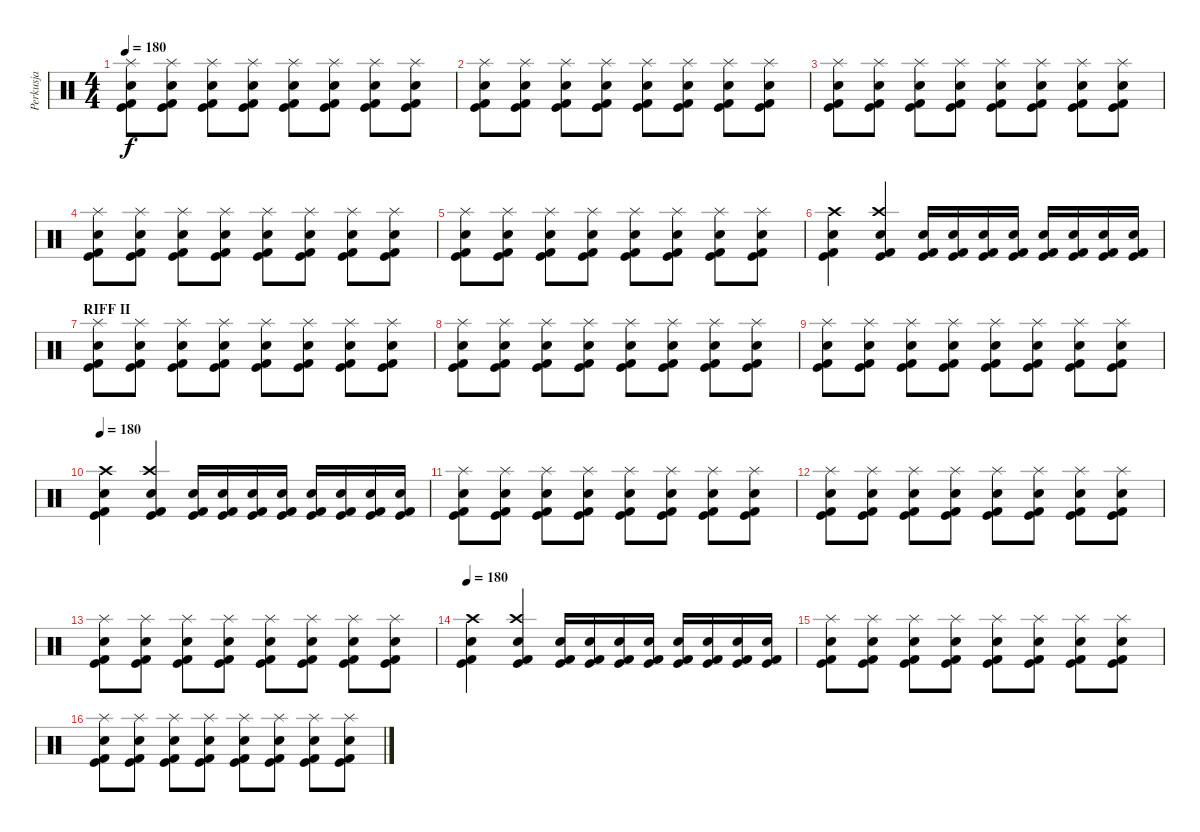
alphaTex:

\track ("Perkusja" "Perkusja") {instrument percussion}
\staff {score}
\articulation defaults
\ts (4 4)
\tempo 180
\clef neutral
\ks c
("Kick (hit)" "Kick (hit) 2" "Snare (hit) 2" "Splash (hit)").8{dy f} ("Kick (hit)" "Kick (hit) 2" "Snare (hit) 2" "Splash (hit)").8 ("Kick (hit)" "Kick (hit) 2" "Snare (hit) 2" "Splash (hit)").8 ("Kick (hit)" "Kick (hit) 2" "Snare (hit) 2" "Splash (hit)").8 ("Kick (hit)" "Kick (hit) 2" "Snare (hit) 2" "Splash (hit)").8 ("Kick (hit)" "Kick (hit) 2" "Snare (hit) 2" "Splash (hit)").8 ("Kick (hit)" "Kick (hit) 2" "Snare (hit) 2" "Splash (hit)").8 ("Kick (hit)" "Kick (hit) 2" "Snare (hit) 2" "Splash (hit)").8 |
("Kick (hit)" "Kick (hit) 2" "Snare (hit) 2" "Splash (hit)").8 ("Kick (hit)" "Kick (hit) 2" "Snare (hit) 2" "Splash (hit)").8 ("Kick (hit)" "Kick (hit) 2" "Snare (hit) 2" "Splash (hit)").8 ("Kick (hit)" "Kick (hit) 2" "Snare (hit) 2" "Splash (hit)").8 ("Kick (hit)" "Kick (hit) 2" "Snare (hit) 2" "Splash (hit)").8 ("Kick (hit)" "Kick (hit) 2" "Snare (hit) 2" "Splash (hit)").8 ("Kick (hit)" "Kick (hit) 2" "Snare (hit) 2" "Splash (hit)").8 ("Kick (hit)" "Kick (hit) 2" "Snare (hit) 2" "Splash (hit)").8 |
("Kick (hit)" "Kick (hit) 2" "Snare (hit) 2" "Splash (hit)").8 ("Kick (hit)" "Kick (hit) 2" "Snare (hit) 2" "Splash (hit)").8 ("Kick (hit)" "Kick (hit) 2" "Snare (hit) 2" "Splash (hit)").8 ("Kick (hit)" "Kick (hit) 2" "Snare (hit) 2" "Splash (hit)").8 ("Kick (hit)" "Kick (hit) 2" "Snare (hit) 2" "Splash (hit)").8 ("Kick (hit)" "Kick (hit) 2" "Snare (hit) 2" "Splash (hit)").8 ("Kick (hit)" "Kick (hit) 2" "Snare (hit) 2" "Splash (hit)").8 ("Kick (hit)" "Kick (hit) 2" "Snare (hit) 2" "Splash (hit)").8 |
("Kick (hit)" "Kick (hit) 2" "Snare (hit) 2" "Splash (hit)").8 ("Kick (hit)" "Kick (hit) 2" "Snare (hit) 2" "Splash (hit)").8 ("Kick (hit)" "Kick (hit) 2" "Snare (hit) 2" "Splash (hit)").8 ("Kick (hit)" "Kick (hit) 2" "Snare (hit) 2" "Splash (hit)").8 ("Kick (hit)" "Kick (hit) 2" "Snare (hit) 2" "Splash (hit)").8 ("Kick (hit)" "Kick (hit) 2" "Snare (hit) 2" "Splash (hit)").8 ("Kick (hit)" "Kick (hit) 2" "Snare (hit) 2" "Splash (hit)").8 ("Kick (hit)" "Kick (hit) 2" "Snare (hit) 2" "Splash (hit)").8 |
("Kick (hit)" "Kick (hit) 2" "Snare (hit) 2" "Splash (hit)").8 ("Kick (hit)" "Kick (hit) 2" "Snare (hit) 2" "Splash (hit)").8 ("Kick (hit)" "Kick (hit) 2" "Snare (hit) 2" "Splash (hit)").8 ("Kick (hit)" "Kick (hit) 2" "Snare (hit) 2" "Splash (hit)").8 ("Kick (hit)" "Kick (hit) 2" "Snare (hit) 2" "Splash (hit)").8 ("Kick (hit)" "Kick (hit) 2" "Snare (hit) 2" "Splash (hit)").8 ("Kick (hit)" "Kick (hit) 2" "Snare (hit) 2" "Splash (hit)").8 ("Kick (hit)" "Kick (hit) 2" "Snare (hit) 2" "Splash (hit)").8 |
("Crash high (hit)" "Snare (hit) 2" "Kick (hit) 2" "Kick (hit)").4 ("Crash high (hit)" "Electric Snare (hit)" "Kick (hit) 2" "Kick (hit)").4 ("Snare (hit) 2" "Kick (hit) 2" "Kick (hit)").16 ("Snare (hit) 2" "Kick (hit) 2" "Kick (hit)").16 ("Snare (hit) 2" "Kick (hit) 2" "Kick (hit)").16 ("Snare (hit) 2" "Kick (hit) 2" "Kick (hit)").16 ("Snare (hit) 2" "Kick (hit) 2" "Kick (hit)").16 ("Snare (hit) 2" "Kick (hit) 2" "Kick (hit)").16 ("Snare (hit) 2" "Kick (hit) 2" "Kick (hit)").16 ("Snare (hit) 2" "Kick (hit) 2" "Kick (hit)").16 |
\section ("" "RIFF II")
("Kick (hit)" "Kick (hit) 2" "Snare (hit) 2" "Splash (hit)").8 ("Kick (hit)" "Kick (hit) 2" "Snare (hit) 2" "Splash (hit)").8 ("Kick (hit)" "Kick (hit) 2" "Snare (hit) 2" "Splash (hit)").8 ("Kick (hit)" "Kick (hit) 2" "Snare (hit) 2" "Splash (hit)").8 ("Kick (hit)" "Kick (hit) 2" "Snare (hit) 2" "Splash (hit)").8 ("Kick (hit)" "Kick (hit) 2" "Snare (hit) 2" "Splash (hit)").8 ("Kick (hit)" "Kick (hit) 2" "Snare (hit) 2" "Splash (hit)").8 ("Kick (hit)" "Kick (hit) 2" "Snare (hit) 2" "Splash (hit)").8 |
("Kick (hit)" "Kick (hit) 2" "Snare (hit) 2" "Splash (hit)").8 ("Kick (hit)" "Kick (hit) 2" "Snare (hit) 2" "Splash (hit)").8 ("Kick (hit)" "Kick (hit) 2" "Snare (hit) 2" "Splash (hit)").8 ("Kick (hit)" "Kick (hit) 2" "Snare (hit) 2" "Splash (hit)").8 ("Kick (hit)" "Kick (hit) 2" "Snare (hit) 2" "Splash (hit)").8 ("Kick (hit)" "Kick (hit) 2" "Snare (hit) 2" "Splash (hit)").8 ("Kick (hit)" "Kick (hit) 2" "Snare (hit) 2" "Splash (hit)").8 ("Kick (hit)" "Kick (hit) 2" "Snare (hit) 2" "Splash (hit)").8 |
("Kick (hit)" "Kick (hit) 2" "Snare (hit) 2" "Splash (hit)").8 ("Kick (hit)" "Kick (hit) 2" "Snare (hit) 2" "Splash (hit)").8 ("Kick (hit)" "Kick (hit) 2" "Snare (hit) 2" "Splash (hit)").8 ("Kick (hit)" "Kick (hit) 2" "Snare (hit) 2" "Splash (hit)").8 ("Kick (hit)" "Kick (hit) 2" "Snare (hit) 2" "Splash (hit)").8 ("Kick (hit)" "Kick (hit) 2" "Snare (hit) 2" "Splash (hit)").8 ("Kick (hit)" "Kick (hit) 2" "Snare (hit) 2" "Splash (hit)").8 ("Kick (hit)" "Kick (hit) 2" "Snare (hit) 2" "Splash (hit)").8 |
\tempo 180
("Crash high (hit)" "Snare (hit) 2" "Kick (hit) 2" "Kick (hit)").4 ("Crash high (hit)" "Electric Snare (hit)" "Kick (hit) 2" "Kick (hit)").4 ("Snare (hit) 2" "Kick (hit) 2" "Kick (hit)").16 ("Snare (hit) 2" "Kick (hit) 2" "Kick (hit)").16 ("Snare (hit) 2" "Kick (hit) 2" "Kick (hit)").16 ("Snare (hit) 2" "Kick (hit) 2" "Kick (hit)").16 ("Snare (hit) 2" "Kick (hit) 2" "Kick (hit)").16 ("Snare (hit) 2" "Kick (hit) 2" "Kick (hit)").16 ("Snare (hit) 2" "Kick (hit) 2" "Kick (hit)").16 ("Snare (hit) 2" "Kick (hit) 2" "Kick (hit)").16 |
("Kick (hit)" "Kick (hit) 2" "Snare (hit) 2" "Splash (hit)").8 ("Kick (hit)" "Kick (hit) 2" "Snare (hit) 2" "Splash (hit)").8 ("Kick (hit)" "Kick (hit) 2" "Snare (hit) 2" "Splash (hit)").8 ("Kick (hit)" "Kick (hit) 2" "Snare (hit) 2" "Splash (hit)").8 ("Kick (hit)" "Kick (hit) 2" "Snare (hit) 2" "Splash (hit)").8 ("Kick (hit)" "Kick (hit) 2" "Snare (hit) 2" "Splash (hit)").8 ("Kick (hit)" "Kick (hit) 2" "Snare (hit) 2" "Splash (hit)").8 ("Kick (hit)" "Kick (hit) 2" "Snare (hit) 2" "Splash (hit)").8 |
("Kick (hit)" "Kick (hit) 2" "Snare (hit) 2" "Splash (hit)").8 ("Kick (hit)" "Kick (hit) 2" "Snare (hit) 2" "Splash (hit)").8 ("Kick (hit)" "Kick (hit) 2" "Snare (hit) 2" "Splash (hit)").8 ("Kick (hit)" "Kick (hit) 2" "Snare (hit) 2" "Splash (hit)").8 ("Kick (hit)" "Kick (hit) 2" "Snare (hit) 2" "Splash (hit)").8 ("Kick (hit)" "Kick (hit) 2" "Snare (hit) 2" "Splash (hit)").8 ("Kick (hit)" "Kick (hit) 2" "Snare (hit) 2" "Splash (hit)").8 ("Kick (hit)" "Kick (hit) 2" "Snare (hit) 2" "Splash (hit)").8 |
("Kick (hit)" "Kick (hit) 2" "Snare (hit) 2" "Splash (hit)").8 ("Kick (hit)" "Kick (hit) 2" "Snare (hit) 2" "Splash (hit)").8 ("Kick (hit)" "Kick (hit) 2" "Snare (hit) 2" "Splash (hit)").8 ("Kick (hit)" "Kick (hit) 2" "Snare (hit) 2" "Splash (hit)").8 ("Kick (hit)" "Kick (hit) 2" "Snare (hit) 2" "Splash (hit)").8 ("Kick (hit)" "Kick (hit) 2" "Snare (hit) 2" "Splash (hit)").8 ("Kick (hit)" "Kick (hit) 2" "Snare (hit) 2" "Splash (hit)").8 ("Kick (hit)" "Kick (hit) 2" "Snare (hit) 2" "Splash (hit)").8 |
\tempo 180
("Crash high (hit)" "Snare (hit) 2" "Kick (hit) 2" "Kick (hit)").4 ("Crash high (hit)" "Electric Snare (hit)" "Kick (hit) 2" "Kick (hit)").4 ("Snare (hit) 2" "Kick (hit) 2" "Kick (hit)").16 ("Snare (hit) 2" "Kick (hit) 2" "Kick (hit)").16 ("Snare (hit) 2" "Kick (hit) 2" "Kick (hit)").16 ("Snare (hit) 2" "Kick (hit) 2" "Kick (hit)").16 ("Snare (hit) 2" "Kick (hit) 2" "Kick (hit)").16 ("Snare (hit) 2" "Kick (hit) 2" "Kick (hit)").16 ("Snare (hit) 2" "Kick (hit) 2" "Kick (hit)").16 ("Snare (hit) 2" "Kick (hit) 2" "Kick (hit)").16 |
("Kick (hit)" "Kick (hit) 2" "Snare (hit) 2" "Splash (hit)").8 ("Kick (hit)" "Kick (hit) 2" "Snare (hit) 2" "Splash (hit)").8 ("Kick (hit)" "Kick (hit) 2" "Snare (hit) 2" "Splash (hit)").8 ("Kick (hit)" "Kick (hit) 2" "Snare (hit) 2" "Splash (hit)").8 ("Kick (hit)" "Kick (hit) 2" "Snare (hit) 2" "Splash (hit)").8 ("Kick (hit)" "Kick (hit) 2" "Snare (hit) 2" "Splash (hit)").8 ("Kick (hit)" "Kick (hit) 2" "Snare (hit) 2" "Splash (hit)").8 ("Kick (hit)" "Kick (hit) 2" "Snare (hit) 2" "Splash (hit)").8 |
("Kick (hit)" "Kick (hit) 2" "Snare (hit) 2" "Splash (hit)").8 ("Kick (hit)" "Kick (hit) 2" "Snare (hit) 2" "Splash (hit)").8 ("Kick (hit)" "Kick (hit) 2" "Snare (hit) 2" "Splash (hit)").8 ("Kick (hit)" "Kick (hit) 2" "Snare (hit) 2" "Splash (hit)").8 ("Kick (hit)" "Kick (hit) 2" "Snare (hit) 2" "Splash (hit)").8 ("Kick (hit)" "Kick (hit) 2" "Snare (hit) 2" "Splash (hit)").8 ("Kick (hit)" "Kick (hit) 2" "Snare (hit) 2" "Splash (hit)").8 ("Kick (hit)" "Kick (hit) 2" "Snare (hit) 2" "Splash (hit)").8
